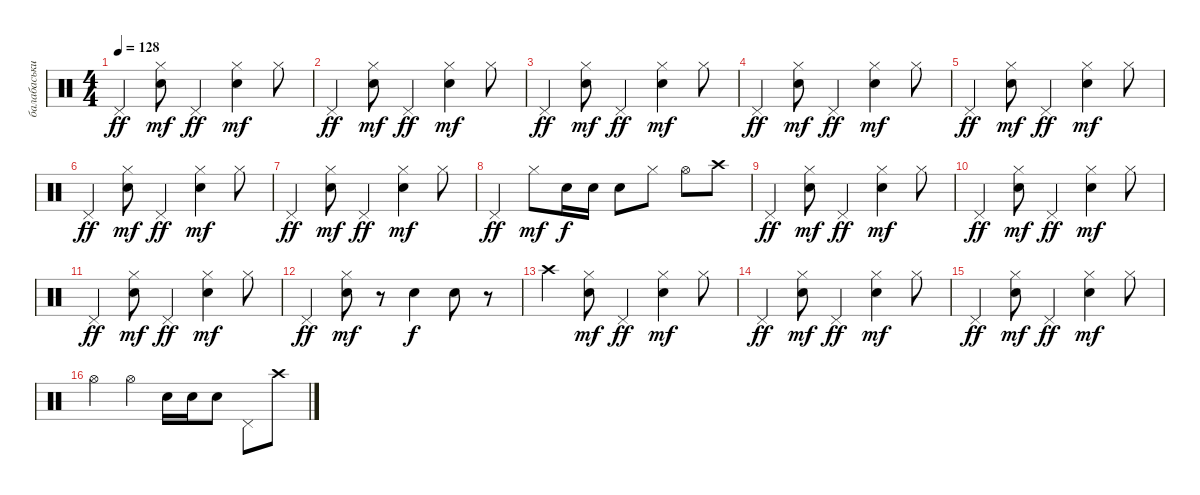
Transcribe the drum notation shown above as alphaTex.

\track ("балабаськи" "балабаськи") {instrument percussion}
\staff {score}
\articulation defaults
\ts (4 4)
\tempo 128
\clef neutral
\ks c "Pedal Hi-Hat (hit)".4{dy ff}
("Hi-Hat (closed)" "Snare (hit) 2").8{dy mf} "Pedal Hi-Hat (hit)".4{dy ff} ("Hi-Hat (closed)" "Snare (hit) 2").4{dy mf} "Hi-Hat (closed)".8 |
"Pedal Hi-Hat (hit)".4{dy ff} ("Hi-Hat (closed)" "Snare (hit) 2").8{dy mf} "Pedal Hi-Hat (hit)".4{dy ff} ("Hi-Hat (closed)" "Snare (hit) 2").4{dy mf} "Hi-Hat (closed)".8 |
"Pedal Hi-Hat (hit)".4{dy ff} ("Hi-Hat (closed)" "Snare (hit) 2").8{dy mf} "Pedal Hi-Hat (hit)".4{dy ff} ("Hi-Hat (closed)" "Snare (hit) 2").4{dy mf} "Hi-Hat (closed)".8 |
"Pedal Hi-Hat (hit)".4{dy ff} ("Hi-Hat (closed)" "Snare (hit) 2").8{dy mf} "Pedal Hi-Hat (hit)".4{dy ff} ("Hi-Hat (closed)" "Snare (hit) 2").4{dy mf} "Hi-Hat (closed)".8 |
"Pedal Hi-Hat (hit)".4{dy ff} ("Hi-Hat (closed)" "Snare (hit) 2").8{dy mf} "Pedal Hi-Hat (hit)".4{dy ff} ("Hi-Hat (closed)" "Snare (hit) 2").4{dy mf} "Hi-Hat (closed)".8 |
"Pedal Hi-Hat (hit)".4{dy ff} ("Hi-Hat (closed)" "Snare (hit) 2").8{dy mf} "Pedal Hi-Hat (hit)".4{dy ff} ("Hi-Hat (closed)" "Snare (hit) 2").4{dy mf} "Hi-Hat (closed)".8 |
"Pedal Hi-Hat (hit)".4{dy ff} ("Hi-Hat (closed)" "Snare (hit) 2").8{dy mf} "Pedal Hi-Hat (hit)".4{dy ff} ("Hi-Hat (closed)" "Snare (hit) 2").4{dy mf} "Hi-Hat (closed)".8 |
"Pedal Hi-Hat (hit)".4{dy ff} "Hi-Hat (closed)".8{dy mf} "Snare (hit) 2".16{dy f} "Snare (hit) 2".16 "Snare (hit) 2".8 "Hi-Hat (closed)".8 "Hi-Hat (open)".8 "Crash high (hit)".8 |
"Pedal Hi-Hat (hit)".4{dy ff} ("Hi-Hat (closed)" "Snare (hit) 2").8{dy mf} "Pedal Hi-Hat (hit)".4{dy ff} ("Hi-Hat (closed)" "Snare (hit) 2").4{dy mf} "Hi-Hat (closed)".8 |
"Pedal Hi-Hat (hit)".4{dy ff} ("Hi-Hat (closed)" "Snare (hit) 2").8{dy mf} "Pedal Hi-Hat (hit)".4{dy ff} ("Hi-Hat (closed)" "Snare (hit) 2").4{dy mf} "Hi-Hat (closed)".8 |
"Pedal Hi-Hat (hit)".4{dy ff} ("Hi-Hat (closed)" "Snare (hit) 2").8{dy mf} "Pedal Hi-Hat (hit)".4{dy ff} ("Hi-Hat (closed)" "Snare (hit) 2").4{dy mf} "Hi-Hat (closed)".8 |
"Pedal Hi-Hat (hit)".4{dy ff} ("Hi-Hat (closed)" "Snare (hit) 2").8{dy mf} r.8 "Snare (hit) 2".4{dy f} "Snare (hit) 2".8 r.8 |
"Crash high (hit)".4 ("Hi-Hat (closed)" "Snare (hit) 2").8{dy mf} "Pedal Hi-Hat (hit)".4{dy ff} ("Hi-Hat (closed)" "Snare (hit) 2").4{dy mf} "Hi-Hat (closed)".8 |
"Pedal Hi-Hat (hit)".4{dy ff} ("Hi-Hat (closed)" "Snare (hit) 2").8{dy mf} "Pedal Hi-Hat (hit)".4{dy ff} ("Hi-Hat (closed)" "Snare (hit) 2").4{dy mf} "Hi-Hat (closed)".8 |
"Pedal Hi-Hat (hit)".4{dy ff} ("Hi-Hat (closed)" "Snare (hit) 2").8{dy mf} "Pedal Hi-Hat (hit)".4{dy ff} ("Hi-Hat (closed)" "Snare (hit) 2").4{dy mf} "Hi-Hat (closed)".8 |
"Hi-Hat (open)".4 "Hi-Hat (open)".4 "Snare (hit) 2".16 "Snare (hit) 2".16 "Snare (hit) 2".8 "Pedal Hi-Hat (hit)".8 "Crash high (hit)".8
